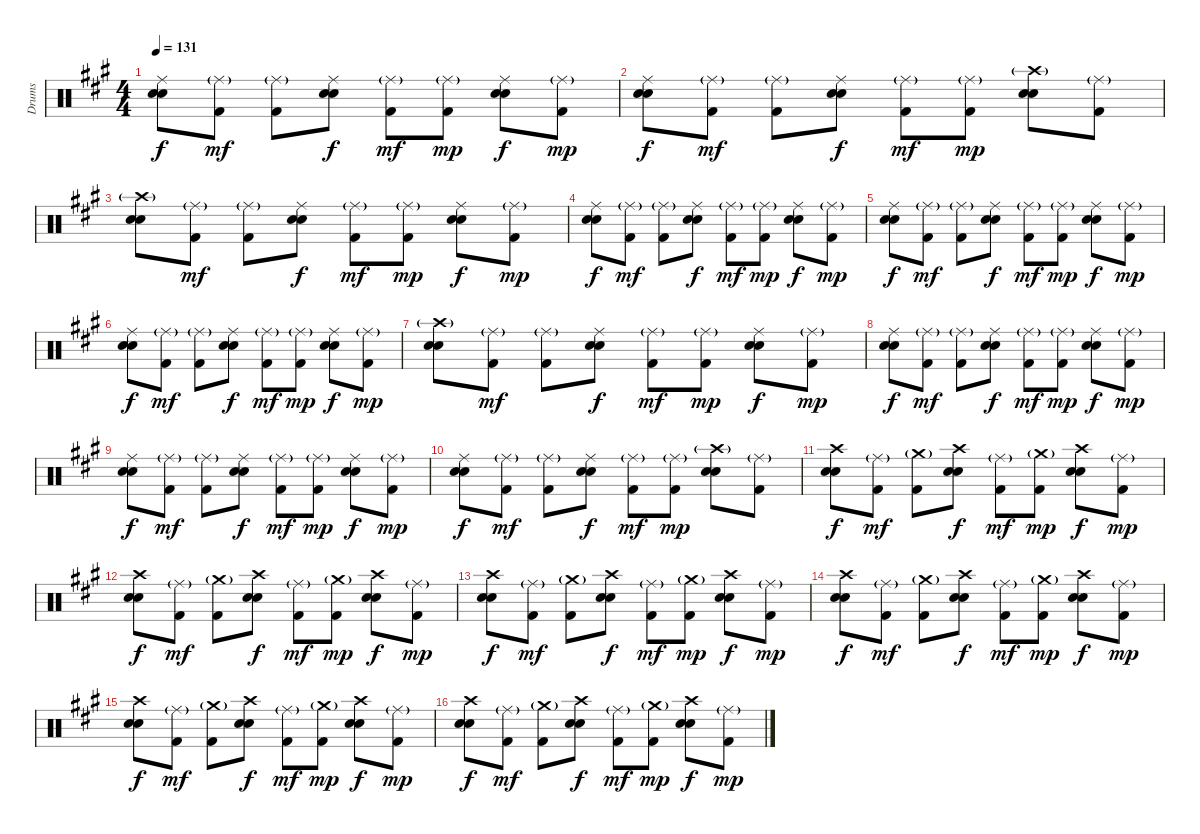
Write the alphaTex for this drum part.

\track ("Drums" "Drums") {instrument percussion}
\staff {score}
\articulation defaults
\ts (4 4)
\tempo 131
\clef neutral
\ks a
("Ride (middle)" "Electric Snare (hit)" "Snare (hit) 2").8{dy f} ("Ride (middle)"{g} "Kick (hit) 2").8{dy mf} ("Ride (middle)"{g} "Kick (hit) 2").8 ("Ride (middle)" "Electric Snare (hit)" "Snare (hit) 2").8{dy f} ("Ride (middle)"{g} "Kick (hit) 2").8{dy mf} ("Ride (middle)"{g} "Kick (hit) 2").8{dy mp} ("Ride (middle)" "Electric Snare (hit)" "Snare (hit) 2").8{dy f} ("Ride (middle)"{g} "Kick (hit) 2").8{dy mp} |
("Ride (middle)" "Electric Snare (hit)" "Snare (hit) 2").8{dy f} ("Ride (middle)"{g} "Kick (hit) 2").8{dy mf} ("Ride (middle)"{g} "Kick (hit) 2").8 ("Ride (middle)" "Electric Snare (hit)" "Snare (hit) 2").8{dy f} ("Ride (middle)"{g} "Kick (hit) 2").8{dy mf} ("Ride (middle)"{g} "Kick (hit) 2").8{dy mp} ("Crash high (hit)"{g} "Electric Snare (hit)" "Snare (hit) 2").8 ("Ride (middle)"{g} "Kick (hit) 2").8 |
("Crash high (hit)"{g} "Electric Snare (hit)" "Snare (hit) 2").8 ("Ride (middle)"{g} "Kick (hit) 2").8{dy mf} ("Ride (middle)"{g} "Kick (hit) 2").8 ("Ride (middle)" "Electric Snare (hit)" "Snare (hit) 2").8{dy f} ("Ride (middle)"{g} "Kick (hit) 2").8{dy mf} ("Ride (middle)"{g} "Kick (hit) 2").8{dy mp} ("Ride (middle)" "Electric Snare (hit)" "Snare (hit) 2").8{dy f} ("Ride (middle)"{g} "Kick (hit) 2").8{dy mp} |
("Ride (middle)" "Electric Snare (hit)" "Snare (hit) 2").8{dy f} ("Ride (middle)"{g} "Kick (hit) 2").8{dy mf} ("Ride (middle)"{g} "Kick (hit) 2").8 ("Ride (middle)" "Electric Snare (hit)" "Snare (hit) 2").8{dy f} ("Ride (middle)"{g} "Kick (hit) 2").8{dy mf} ("Ride (middle)"{g} "Kick (hit) 2").8{dy mp} ("Ride (middle)" "Electric Snare (hit)" "Snare (hit) 2").8{dy f} ("Ride (middle)"{g} "Kick (hit) 2").8{dy mp} |
("Ride (middle)" "Electric Snare (hit)" "Snare (hit) 2").8{dy f} ("Ride (middle)"{g} "Kick (hit) 2").8{dy mf} ("Ride (middle)"{g} "Kick (hit) 2").8 ("Ride (middle)" "Electric Snare (hit)" "Snare (hit) 2").8{dy f} ("Ride (middle)"{g} "Kick (hit) 2").8{dy mf} ("Ride (middle)"{g} "Kick (hit) 2").8{dy mp} ("Ride (middle)" "Electric Snare (hit)" "Snare (hit) 2").8{dy f} ("Ride (middle)"{g} "Kick (hit) 2").8{dy mp} |
("Ride (middle)" "Electric Snare (hit)" "Snare (hit) 2").8{dy f} ("Ride (middle)"{g} "Kick (hit) 2").8{dy mf} ("Ride (middle)"{g} "Kick (hit) 2").8 ("Ride (middle)" "Electric Snare (hit)" "Snare (hit) 2").8{dy f} ("Ride (middle)"{g} "Kick (hit) 2").8{dy mf} ("Ride (middle)"{g} "Kick (hit) 2").8{dy mp} ("Ride (middle)" "Electric Snare (hit)" "Snare (hit) 2").8{dy f} ("Ride (middle)"{g} "Kick (hit) 2").8{dy mp} |
("Crash high (hit)"{g} "Electric Snare (hit)" "Snare (hit) 2").8 ("Ride (middle)"{g} "Kick (hit) 2").8{dy mf} ("Ride (middle)"{g} "Kick (hit) 2").8 ("Ride (middle)" "Electric Snare (hit)" "Snare (hit) 2").8{dy f} ("Ride (middle)"{g} "Kick (hit) 2").8{dy mf} ("Ride (middle)"{g} "Kick (hit) 2").8{dy mp} ("Ride (middle)" "Electric Snare (hit)" "Snare (hit) 2").8{dy f} ("Ride (middle)"{g} "Kick (hit) 2").8{dy mp} |
("Ride (middle)" "Electric Snare (hit)" "Snare (hit) 2").8{dy f} ("Ride (middle)"{g} "Kick (hit) 2").8{dy mf} ("Ride (middle)"{g} "Kick (hit) 2").8 ("Ride (middle)" "Electric Snare (hit)" "Snare (hit) 2").8{dy f} ("Ride (middle)"{g} "Kick (hit) 2").8{dy mf} ("Ride (middle)"{g} "Kick (hit) 2").8{dy mp} ("Ride (middle)" "Electric Snare (hit)" "Snare (hit) 2").8{dy f} ("Ride (middle)"{g} "Kick (hit) 2").8{dy mp} |
("Ride (middle)" "Electric Snare (hit)" "Snare (hit) 2").8{dy f} ("Ride (middle)"{g} "Kick (hit) 2").8{dy mf} ("Ride (middle)"{g} "Kick (hit) 2").8 ("Ride (middle)" "Electric Snare (hit)" "Snare (hit) 2").8{dy f} ("Ride (middle)"{g} "Kick (hit) 2").8{dy mf} ("Ride (middle)"{g} "Kick (hit) 2").8{dy mp} ("Ride (middle)" "Electric Snare (hit)" "Snare (hit) 2").8{dy f} ("Ride (middle)"{g} "Kick (hit) 2").8{dy mp} |
("Ride (middle)" "Electric Snare (hit)" "Snare (hit) 2").8{dy f} ("Ride (middle)"{g} "Kick (hit) 2").8{dy mf} ("Ride (middle)"{g} "Kick (hit) 2").8 ("Ride (middle)" "Electric Snare (hit)" "Snare (hit) 2").8{dy f} ("Ride (middle)"{g} "Kick (hit) 2").8{dy mf} ("Ride (middle)"{g} "Kick (hit) 2").8{dy mp} ("Crash high (hit)"{g} "Electric Snare (hit)" "Snare (hit) 2").8 ("Ride (middle)"{g} "Kick (hit) 2").8 |
("Crash high (hit)" "Electric Snare (hit)" "Snare (hit) 2").8{dy f} ("Ride (middle)"{g} "Kick (hit) 2").8{dy mf} ("Crash medium (hit)"{g} "Kick (hit) 2").8 ("Crash high (hit)" "Electric Snare (hit)" "Snare (hit) 2").8{dy f} ("Ride (middle)"{g} "Kick (hit) 2").8{dy mf} ("Crash medium (hit)"{g} "Kick (hit) 2").8{dy mp} ("Crash high (hit)" "Electric Snare (hit)" "Snare (hit) 2").8{dy f} ("Ride (middle)"{g} "Kick (hit) 2").8{dy mp} |
("Crash high (hit)" "Electric Snare (hit)" "Snare (hit) 2").8{dy f} ("Ride (middle)"{g} "Kick (hit) 2").8{dy mf} ("Crash medium (hit)"{g} "Kick (hit) 2").8 ("Crash high (hit)" "Electric Snare (hit)" "Snare (hit) 2").8{dy f} ("Ride (middle)"{g} "Kick (hit) 2").8{dy mf} ("Crash medium (hit)"{g} "Kick (hit) 2").8{dy mp} ("Crash high (hit)" "Electric Snare (hit)" "Snare (hit) 2").8{dy f} ("Ride (middle)"{g} "Kick (hit) 2").8{dy mp} |
("Crash high (hit)" "Electric Snare (hit)" "Snare (hit) 2").8{dy f} ("Ride (middle)"{g} "Kick (hit) 2").8{dy mf} ("Crash medium (hit)"{g} "Kick (hit) 2").8 ("Crash high (hit)" "Electric Snare (hit)" "Snare (hit) 2").8{dy f} ("Ride (middle)"{g} "Kick (hit) 2").8{dy mf} ("Crash medium (hit)"{g} "Kick (hit) 2").8{dy mp} ("Crash high (hit)" "Electric Snare (hit)" "Snare (hit) 2").8{dy f} ("Ride (middle)"{g} "Kick (hit) 2").8{dy mp} |
("Crash high (hit)" "Electric Snare (hit)" "Snare (hit) 2").8{dy f} ("Ride (middle)"{g} "Kick (hit) 2").8{dy mf} ("Crash medium (hit)"{g} "Kick (hit) 2").8 ("Crash high (hit)" "Electric Snare (hit)" "Snare (hit) 2").8{dy f} ("Ride (middle)"{g} "Kick (hit) 2").8{dy mf} ("Crash medium (hit)"{g} "Kick (hit) 2").8{dy mp} ("Crash high (hit)" "Electric Snare (hit)" "Snare (hit) 2").8{dy f} ("Ride (middle)"{g} "Kick (hit) 2").8{dy mp} |
("Crash high (hit)" "Electric Snare (hit)" "Snare (hit) 2").8{dy f} ("Ride (middle)"{g} "Kick (hit) 2").8{dy mf} ("Crash medium (hit)"{g} "Kick (hit) 2").8 ("Crash high (hit)" "Electric Snare (hit)" "Snare (hit) 2").8{dy f} ("Ride (middle)"{g} "Kick (hit) 2").8{dy mf} ("Crash medium (hit)"{g} "Kick (hit) 2").8{dy mp} ("Crash high (hit)" "Electric Snare (hit)" "Snare (hit) 2").8{dy f} ("Ride (middle)"{g} "Kick (hit) 2").8{dy mp} |
("Crash high (hit)" "Electric Snare (hit)" "Snare (hit) 2").8{dy f} ("Ride (middle)"{g} "Kick (hit) 2").8{dy mf} ("Crash medium (hit)"{g} "Kick (hit) 2").8 ("Crash high (hit)" "Electric Snare (hit)" "Snare (hit) 2").8{dy f} ("Ride (middle)"{g} "Kick (hit) 2").8{dy mf} ("Crash medium (hit)"{g} "Kick (hit) 2").8{dy mp} ("Crash high (hit)" "Electric Snare (hit)" "Snare (hit) 2").8{dy f} ("Ride (middle)"{g} "Kick (hit) 2").8{dy mp}
